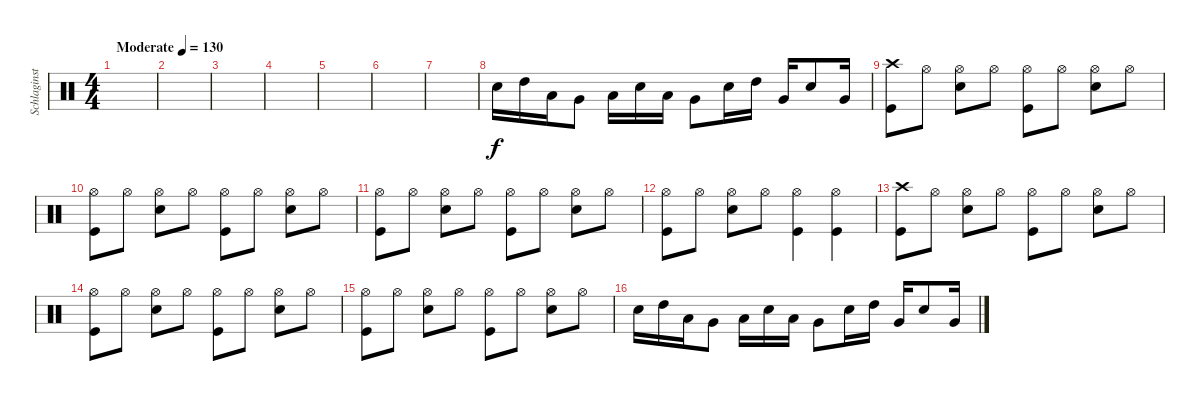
\track ("Schlaginstrumente - Auswahl" "Schlaginst") {instrument percussion}
\staff {score}
\articulation defaults
\ts (4 4)
\tempo (130 "Moderate")
\clef neutral
\ks c
|
|
|
|
|
|
|
"Electric Snare (hit)".16 "High Tom (hit)".16 "Low Tom (hit)".16 "Very Low Tom (hit)".8 "Low Tom (hit)".16 "Electric Snare (hit)".16 "Low Tom (hit)".16 "Very Low Tom (hit)".8 "Electric Snare (hit)".16 "High Tom (hit)".16 "Very Low Tom (hit)".16 "Electric Snare (hit)".8 "Very Low Tom (hit)".16 |
("Crash high (hit)" "Kick (hit)").8 "Hi-Hat (open)".8 ("Hi-Hat (open)" "Electric Snare (hit)").8 "Hi-Hat (open)".8 ("Hi-Hat (open)" "Kick (hit)").8 "Hi-Hat (open)".8 ("Hi-Hat (open)" "Electric Snare (hit)").8 "Hi-Hat (open)".8 |
("Hi-Hat (open)" "Kick (hit)").8 "Hi-Hat (open)".8 ("Hi-Hat (open)" "Electric Snare (hit)").8 "Hi-Hat (open)".8 ("Hi-Hat (open)" "Kick (hit)").8 "Hi-Hat (open)".8 ("Hi-Hat (open)" "Electric Snare (hit)").8 "Hi-Hat (open)".8 |
("Hi-Hat (open)" "Kick (hit)").8 "Hi-Hat (open)".8 ("Hi-Hat (open)" "Electric Snare (hit)").8 "Hi-Hat (open)".8 ("Hi-Hat (open)" "Kick (hit)").8 "Hi-Hat (open)".8 ("Hi-Hat (open)" "Electric Snare (hit)").8 "Hi-Hat (open)".8 |
("Hi-Hat (open)" "Kick (hit)").8 "Hi-Hat (open)".8 ("Hi-Hat (open)" "Electric Snare (hit)").8 "Hi-Hat (open)".8 ("Hi-Hat (open)" "Kick (hit)").4 ("Hi-Hat (open)" "Kick (hit)").4 |
("Crash high (hit)" "Kick (hit)").8 "Hi-Hat (open)".8 ("Hi-Hat (open)" "Electric Snare (hit)").8 "Hi-Hat (open)".8 ("Hi-Hat (open)" "Kick (hit)").8 "Hi-Hat (open)".8 ("Hi-Hat (open)" "Electric Snare (hit)").8 "Hi-Hat (open)".8 |
("Hi-Hat (open)" "Kick (hit)").8 "Hi-Hat (open)".8 ("Hi-Hat (open)" "Electric Snare (hit)").8 "Hi-Hat (open)".8 ("Hi-Hat (open)" "Kick (hit)").8 "Hi-Hat (open)".8 ("Hi-Hat (open)" "Electric Snare (hit)").8 "Hi-Hat (open)".8 |
("Hi-Hat (open)" "Kick (hit)").8 "Hi-Hat (open)".8 ("Hi-Hat (open)" "Electric Snare (hit)").8 "Hi-Hat (open)".8 ("Hi-Hat (open)" "Kick (hit)").8 "Hi-Hat (open)".8 ("Hi-Hat (open)" "Electric Snare (hit)").8 "Hi-Hat (open)".8 |
"Electric Snare (hit)".16 "High Tom (hit)".16 "Low Tom (hit)".16 "Very Low Tom (hit)".8 "Low Tom (hit)".16 "Electric Snare (hit)".16 "Low Tom (hit)".16 "Very Low Tom (hit)".8 "Electric Snare (hit)".16 "High Tom (hit)".16 "Very Low Tom (hit)".16 "Electric Snare (hit)".8 "Very Low Tom (hit)".16
